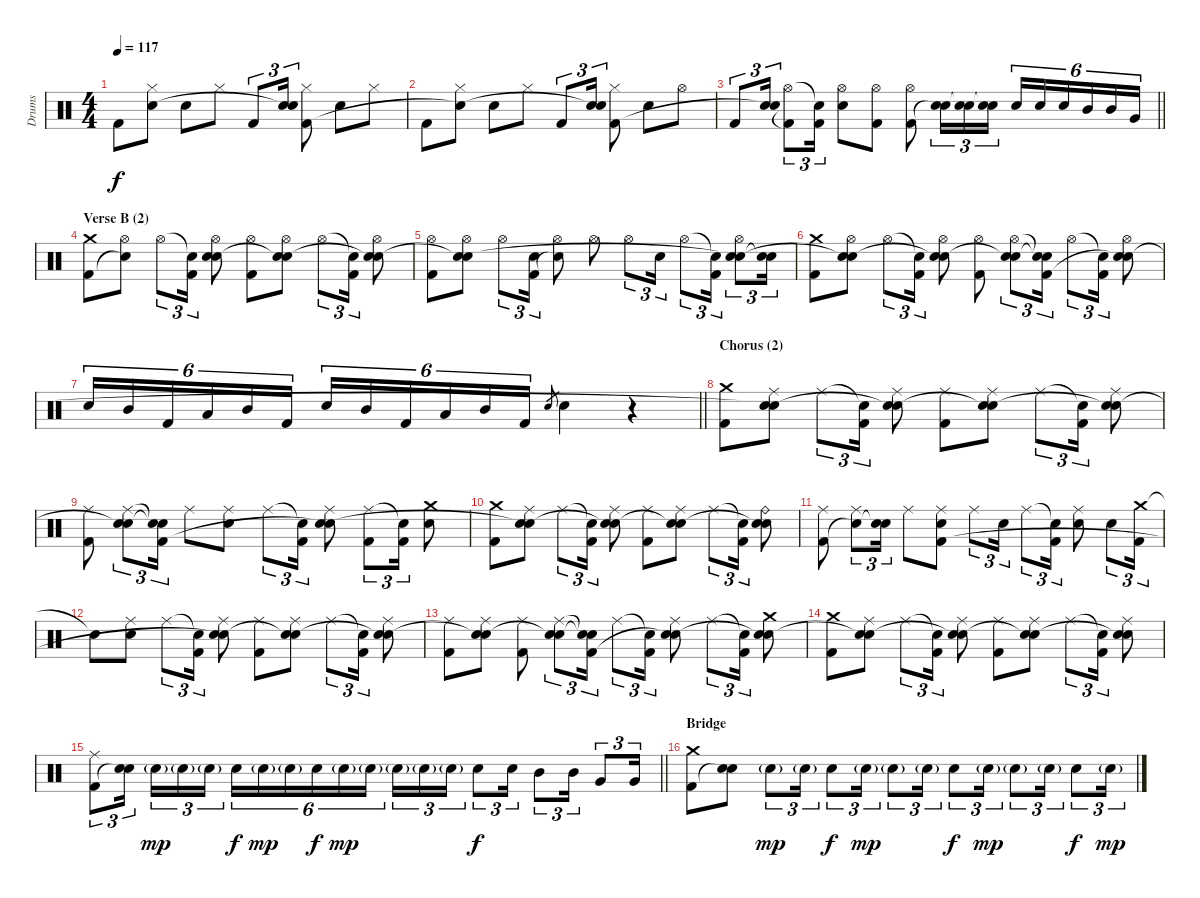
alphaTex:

\track ("Drums" "Drums") {instrument percussion}
\staff {score}
\articulation defaults
\ts (4 4)
\tempo 117
\clef neutral
\ks aminor "Kick (hit) 2".8{dy f}
("Hi-Hat (closed)" "Snare (hit)"{t}).8 "Electric Snare (hit)".8 "Hi-Hat (closed)".8 "Kick (hit) 2".8{tu (3 2)} ("Electric Snare (hit)" "Snare (hit)"{t}).16{tu (3 2)} ("Hi-Hat (closed)" "Kick (hit) 2").8 "Electric Snare (hit)".8 "Hi-Hat (closed)".8 |
"Kick (hit) 2".8 ("Hi-Hat (closed)" "Snare (hit)"{t}).8 "Electric Snare (hit)".8 "Hi-Hat (closed)".8 "Kick (hit) 2".8{tu (3 2)} ("Electric Snare (hit)" "Snare (hit)"{t}).16{tu (3 2)} ("Hi-Hat (closed)" "Kick (hit) 2").8 "Electric Snare (hit)".8 "Hi-Hat (open)".8 |
\barLineRight lightlight "Kick (hit) 2".8{tu (3 2)}
("Electric Snare (hit)" "Snare (hit)"{t}).16{tu (3 2)} ("Hi-Hat (open)" "Kick (hit) 2"{t}).8{tu (3 2)} ("Snare (hit)"{t} "Kick (hit) 2").16{tu (3 2)} ("Hi-Hat (open)" "Electric Snare (hit)").8 ("Hi-Hat (open)" "Kick (hit) 2").8 ("Hi-Hat (open)" "Kick (hit) 2").8 ("Electric Snare (hit)" "Snare (hit)"{t}).16{tu (3 2)} ("Electric Snare (hit)" "Snare (hit)"{t}).16{tu (3 2)} ("Electric Snare (hit)" "Snare (hit)"{t}).16{tu (3 2)} "Electric Snare (hit)".16{tu (6 4)} "Electric Snare (hit)".16{tu (6 4)} "Electric Snare (hit)".16{tu (6 4)} "Mid Tom (hit)".16{tu (6 4)} "Mid Tom (hit)".16{tu (6 4)} "Very Low Tom (hit)".16{tu (6 4)} |
\section ("" "Verse B (2)")
("Crash medium (hit)" "Kick (hit) 2").8 ("Hi-Hat (open)" "Snare (hit)"{t}).8 "Hi-Hat (open)".8{tu (3 2)} ("Snare (hit)"{t} "Kick (hit) 2").16{tu (3 2)} ("Hi-Hat (open)" "Electric Snare (hit)" "Snare (hit)").8 ("Hi-Hat (open)" "Kick (hit) 2").8 ("Hi-Hat (open)" "Electric Snare (hit)" "Snare (hit)"{t}).8 "Hi-Hat (open)".8{tu (3 2)} ("Snare (hit)"{t} "Kick (hit) 2").16{tu (3 2)} ("Hi-Hat (open)" "Electric Snare (hit)" "Snare (hit)"{t}).8 |
("Hi-Hat (open)" "Kick (hit) 2").8 ("Hi-Hat (open)" "Electric Snare (hit)" "Snare (hit)"{t}).8 "Hi-Hat (open)".8{tu (3 2)} ("Electric Snare (hit)" "Kick (hit) 2").16{tu (3 2)} ("Hi-Hat (open)" "Snare (hit)"{t}).8 "Hi-Hat (open)".8 "Hi-Hat (open)".8{tu (3 2)} "Electric Snare (hit)".16{tu (3 2)} "Hi-Hat (open)".8{tu (3 2)} ("Snare (hit)"{t} "Kick (hit) 2").16{tu (3 2)} ("Hi-Hat (open)" "Electric Snare (hit)" "Snare (hit)"{t}).8{tu (3 2)} ("Electric Snare (hit)" "Snare (hit)"{t}).16{tu (3 2)} |
("Crash medium (hit)" "Kick (hit) 2").8 ("Hi-Hat (open)" "Electric Snare (hit)" "Snare (hit)"{t}).8 "Hi-Hat (open)".8{tu (3 2)} ("Snare (hit)"{t} "Kick (hit) 2").16{tu (3 2)} ("Hi-Hat (open)" "Electric Snare (hit)" "Snare (hit)"{t}).8 ("Hi-Hat (open)" "Kick (hit) 2").8 ("Hi-Hat (open)" "Electric Snare (hit)" "Snare (hit)"{t}).8{tu (3 2)} ("Snare (hit)"{t} "Snare (hit)"{t} "Kick (hit) 2").16{tu (3 2)} "Hi-Hat (open)".8{tu (3 2)} ("Snare (hit)"{t} "Kick (hit) 2").16{tu (3 2)} ("Hi-Hat (open)" "Electric Snare (hit)" "Snare (hit)"{t}).8 |
\barLineRight lightlight "Electric Snare (hit)".16{tu (6 4)} "Mid Tom (hit)".16{tu (6 4)} "Kick (hit) 2".16{tu (6 4)} "Low Floor Tom (hit)".16{tu (6 4)} "Mid Tom (hit)".16{tu (6 4)} "Kick (hit) 2".16{tu (6 4)} "Electric Snare (hit)".16{tu (6 4)} "Mid Tom (hit)".16{tu (6 4)} "Kick (hit) 2".16{tu (6 4)} "Low Floor Tom (hit)".16{tu (6 4)} "Mid Tom (hit)".16{tu (6 4)} "Kick (hit) 2".16{tu (6 4)} "Electric Snare (hit)".8{gr} "Electric Snare (hit)".4
r.4 |
\section ("" "Chorus (2)")
("Crash medium (hit)" "Kick (hit) 2").8 ("Ride (middle)" "Electric Snare (hit)" "Snare (hit)"{t}).8 "Ride (middle)".8{tu (3 2)} ("Snare (hit)"{t} "Kick (hit) 2").16{tu (3 2)} ("Ride (middle)" "Electric Snare (hit)" "Snare (hit)"{t}).8 ("Ride (middle)" "Kick (hit) 2").8 ("Ride (middle)" "Electric Snare (hit)" "Snare (hit)"{t}).8 "Ride (middle)".8{tu (3 2)} ("Snare (hit)"{t} "Kick (hit) 2").16{tu (3 2)} ("Ride (middle)" "Electric Snare (hit)" "Snare (hit)"{t}).8 |
("Ride (middle)" "Kick (hit) 2").8 ("Ride (middle)" "Electric Snare (hit)" "Snare (hit)"{t}).8{tu (3 2)} ("Snare (hit)"{t} "Snare (hit)"{t} "Kick (hit) 2").16{tu (3 2)} "Ride (middle)".8 ("Ride (middle)" "Electric Snare (hit)").8 "Ride (middle)".8{tu (3 2)} ("Snare (hit)"{t} "Kick (hit) 2").16{tu (3 2)} ("Ride (middle)" "Electric Snare (hit)" "Snare (hit)"{t}).8 ("Ride (middle)" "Kick (hit) 2").8{tu (3 2)} ("Snare (hit)"{t} "Kick (hit) 2").16{tu (3 2)} ("Crash medium (hit)" "Electric Snare (hit)").8 |
("Crash medium (hit)" "Kick (hit) 2").8 ("Ride (middle)" "Electric Snare (hit)" "Snare (hit)"{t}).8 "Ride (middle)".8{tu (3 2)} ("Snare (hit)"{t} "Kick (hit) 2").16{tu (3 2)} ("Ride (middle)" "Electric Snare (hit)" "Snare (hit)"{t}).8 ("Ride (middle)" "Kick (hit) 2").8 ("Ride (middle)" "Electric Snare (hit)" "Snare (hit)"{t}).8 "Ride (middle)".8{tu (3 2)} ("Snare (hit)"{t} "Kick (hit) 2").16{tu (3 2)} ("Ride (bell)" "Electric Snare (hit)" "Snare (hit)"{t}).8 |
("Ride (middle)" "Kick (hit) 2").8 ("Ride (middle)" "Snare (hit)"{t}).8{tu (3 2)} ("Electric Snare (hit)" "Snare (hit)"{t}).16{tu (3 2)} "Ride (middle)".8 ("Ride (middle)" "Electric Snare (hit)" "Kick (hit) 2").8 "Ride (middle)".8{tu (3 2)} "Electric Snare (hit)".16{tu (3 2)} "Ride (middle)".8{tu (3 2)} ("Snare (hit)"{t} "Kick (hit) 2").16{tu (3 2)} ("Ride (middle)" "Electric Snare (hit)").8 "Electric Snare (hit)".8{tu (3 2)} ("Crash medium (hit)" "Kick (hit) 2").16{tu (3 2)} |
"Snare (hit)"{t}.8 ("Ride (middle)" "Electric Snare (hit)").8 "Ride (middle)".8{tu (3 2)} ("Snare (hit)"{t} "Kick (hit) 2").16{tu (3 2)} ("Ride (middle)" "Electric Snare (hit)" "Snare (hit)"{t}).8 ("Ride (middle)" "Kick (hit) 2").8 ("Ride (middle)" "Electric Snare (hit)" "Snare (hit)"{t}).8 "Ride (middle)".8{tu (3 2)} ("Snare (hit)"{t} "Kick (hit) 2").16{tu (3 2)} ("Ride (middle)" "Electric Snare (hit)" "Snare (hit)"{t}).8 |
("Ride (middle)" "Kick (hit) 2").8 ("Ride (middle)" "Electric Snare (hit)" "Snare (hit)"{t}).8 ("Ride (middle)" "Kick (hit) 2").8 ("Ride (middle)" "Electric Snare (hit)" "Snare (hit)"{t}).8{tu (3 2)} ("Snare (hit)"{t} "Snare (hit)"{t} "Kick (hit) 2").16{tu (3 2)} "Ride (middle)".8{tu (3 2)} ("Snare (hit)"{t} "Kick (hit) 2").16{tu (3 2)} ("Ride (middle)" "Electric Snare (hit)" "Snare (hit)"{t}).8 "Ride (middle)".8{tu (3 2)} ("Snare (hit)"{t} "Kick (hit) 2").16{tu (3 2)} ("Crash medium (hit)" "Electric Snare (hit)" "Snare (hit)"{t}).8 |
("Crash medium (hit)" "Kick (hit) 2").8 ("Ride (middle)" "Electric Snare (hit)" "Snare (hit)"{t}).8 "Ride (middle)".8{tu (3 2)} ("Snare (hit)"{t} "Kick (hit) 2").16{tu (3 2)} ("Ride (middle)" "Electric Snare (hit)" "Snare (hit)"{t}).8 ("Ride (middle)" "Kick (hit) 2").8 ("Ride (middle)" "Electric Snare (hit)" "Snare (hit)"{t}).8 "Ride (middle)".8{tu (3 2)} ("Snare (hit)"{t} "Kick (hit) 2").16{tu (3 2)} ("Ride (middle)" "Electric Snare (hit)" "Snare (hit)"{t}).8 |
\barLineRight lightlight
("Ride (middle)" "Kick (hit) 2").8{tu (3 2)} ("Electric Snare (hit)" "Snare (hit)"{t}).16{tu (3 2)} "Electric Snare (hit)"{g}.16{tu (3 2) dy mp} "Electric Snare (hit)"{g}.16{tu (3 2)} "Electric Snare (hit)"{g}.16{tu (3 2)} "Electric Snare (hit)".16{tu (6 4) dy f} "Electric Snare (hit)"{g}.16{tu (6 4) dy mp} "Electric Snare (hit)"{g}.16{tu (6 4)} "Electric Snare (hit)".16{tu (6 4) dy f} "Electric Snare (hit)"{g}.16{tu (6 4) dy mp} "Electric Snare (hit)"{g}.16{tu (6 4)} "Electric Snare (hit)"{g}.16{tu (3 2)} "Electric Snare (hit)"{g}.16{tu (3 2)} "Electric Snare (hit)"{g}.16{tu (3 2)} "Electric Snare (hit)".8{tu (3 2) dy f} "Electric Snare (hit)".16{tu (3 2)} "Mid Tom (hit)".8{tu (3 2)} "Mid Tom (hit)".16{tu (3 2)} "Very Low Tom (hit)".8{tu (3 2)} "Very Low Tom (hit)".16{tu (3 2)} |
\section ("" "Bridge")
("Crash medium (hit)" "Kick (hit) 2").8 ("Electric Snare (hit)" "Snare (hit)"{t}).8 "Electric Snare (hit)"{g}.8{tu (3 2) dy mp} "Electric Snare (hit)"{g}.16{tu (3 2)} "Electric Snare (hit)".8{tu (3 2) dy f} "Electric Snare (hit)"{g}.16{tu (3 2) dy mp} "Electric Snare (hit)"{g}.8{tu (3 2)} "Electric Snare (hit)"{g}.16{tu (3 2)} "Electric Snare (hit)".8{tu (3 2) dy f} "Electric Snare (hit)"{g}.16{tu (3 2) dy mp} "Electric Snare (hit)"{g}.8{tu (3 2)} "Electric Snare (hit)"{g}.16{tu (3 2)} "Electric Snare (hit)".8{tu (3 2) dy f} "Electric Snare (hit)"{g}.16{tu (3 2) dy mp}
